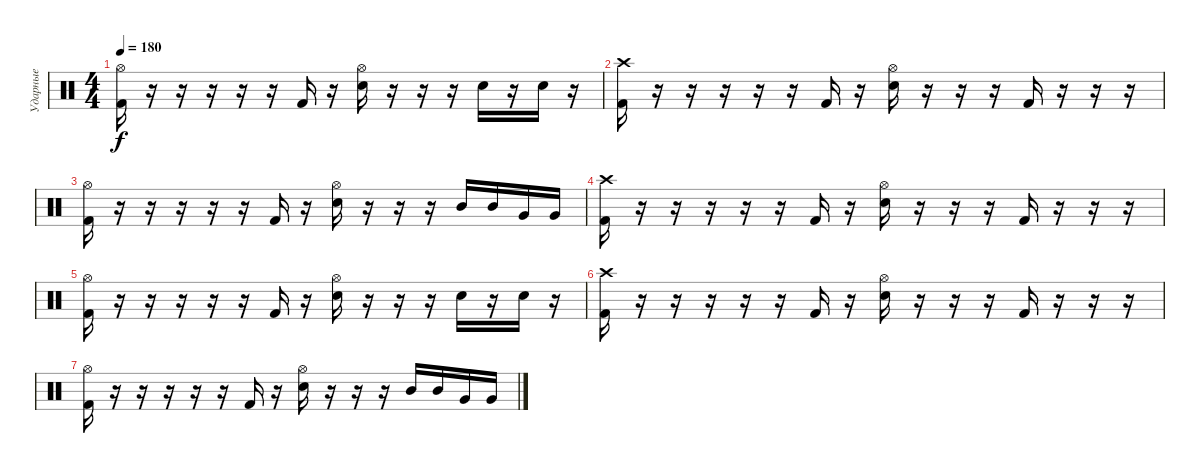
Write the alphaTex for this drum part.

\track ("Ударные" "Ударные") {instrument percussion}
\staff {score}
\articulation defaults
\ts (4 4)
\tempo 180
\clef neutral
\ks c
("Kick (hit) 2" "Hi-Hat (open)").16{dy f} r.16 r.16 r.16 r.16 r.16 "Kick (hit) 2".16 r.16 ("Electric Snare (hit)" "Hi-Hat (open)").16 r.16 r.16 r.16 "Electric Snare (hit)".16 r.16 "Electric Snare (hit)".16 r.16 |
("Kick (hit) 2" "Crash high (hit)").16 r.16 r.16 r.16 r.16 r.16 "Kick (hit) 2".16 r.16 ("Electric Snare (hit)" "Hi-Hat (open)").16 r.16 r.16 r.16 "Kick (hit) 2".16 r.16 r.16 r.16 |
("Kick (hit) 2" "Hi-Hat (open)").16 r.16 r.16 r.16 r.16 r.16 "Kick (hit) 2".16 r.16 ("Electric Snare (hit)" "Hi-Hat (open)").16 r.16 r.16 r.16 "Mid Tom (hit)".16 "Mid Tom (hit)".16 "Very Low Tom (hit)".16 "Very Low Tom (hit)".16 |
("Kick (hit) 2" "Crash high (hit)").16 r.16 r.16 r.16 r.16 r.16 "Kick (hit) 2".16 r.16 ("Electric Snare (hit)" "Hi-Hat (open)").16 r.16 r.16 r.16 "Kick (hit) 2".16 r.16 r.16 r.16 |
("Kick (hit) 2" "Hi-Hat (open)").16 r.16 r.16 r.16 r.16 r.16 "Kick (hit) 2".16 r.16 ("Electric Snare (hit)" "Hi-Hat (open)").16 r.16 r.16 r.16 "Electric Snare (hit)".16 r.16 "Electric Snare (hit)".16 r.16 |
("Kick (hit) 2" "Crash high (hit)").16 r.16 r.16 r.16 r.16 r.16 "Kick (hit) 2".16 r.16 ("Electric Snare (hit)" "Hi-Hat (open)").16 r.16 r.16 r.16 "Kick (hit) 2".16 r.16 r.16 r.16 |
("Kick (hit) 2" "Hi-Hat (open)").16 r.16 r.16 r.16 r.16 r.16 "Kick (hit) 2".16 r.16 ("Electric Snare (hit)" "Hi-Hat (open)").16 r.16 r.16 r.16 "Mid Tom (hit)".16 "Mid Tom (hit)".16 "Very Low Tom (hit)".16 "Very Low Tom (hit)".16
